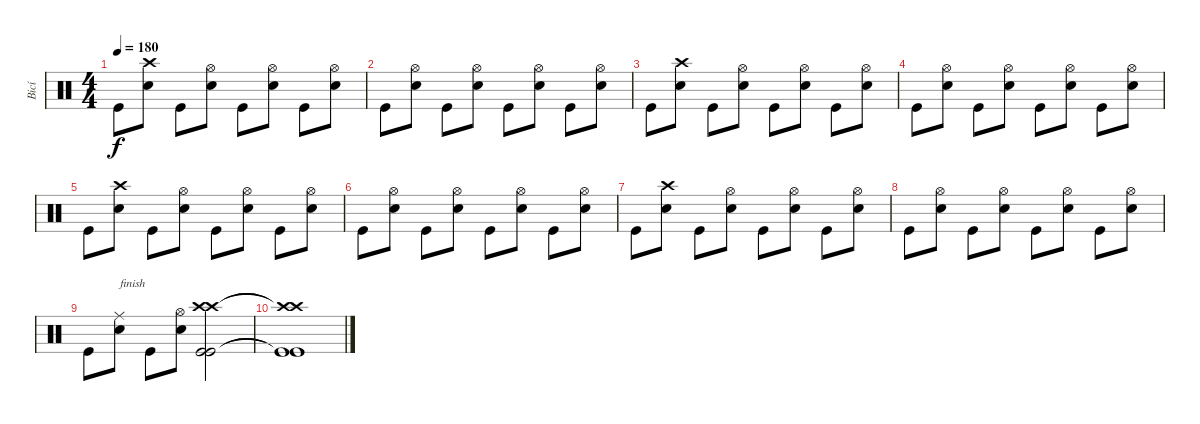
\track ("Bicí" "Bicí") {instrument percussion}
\staff {score}
\articulation defaults
\ts (4 4)
\tempo 180
\clef neutral
\ks c "Kick (hit)".8{dy f}
("Snare (hit) 2" "Crash high (hit)").8 "Kick (hit)".8 ("Snare (hit) 2" "Hi-Hat (open)").8 "Kick (hit)".8 ("Snare (hit) 2" "Hi-Hat (open)").8 "Kick (hit)".8 ("Snare (hit) 2" "Hi-Hat (open)").8 |
"Kick (hit)".8 ("Snare (hit) 2" "Hi-Hat (open)").8 "Kick (hit)".8 ("Snare (hit) 2" "Hi-Hat (open)").8 "Kick (hit)".8 ("Snare (hit) 2" "Hi-Hat (open)").8 "Kick (hit)".8 ("Snare (hit) 2" "Hi-Hat (open)").8 |
"Kick (hit)".8 ("Snare (hit) 2" "Crash high (hit)").8 "Kick (hit)".8 ("Snare (hit) 2" "Hi-Hat (open)").8 "Kick (hit)".8 ("Snare (hit) 2" "Hi-Hat (open)").8 "Kick (hit)".8 ("Snare (hit) 2" "Hi-Hat (open)").8 |
"Kick (hit)".8 ("Snare (hit) 2" "Hi-Hat (open)").8 "Kick (hit)".8 ("Snare (hit) 2" "Hi-Hat (open)").8 "Kick (hit)".8 ("Snare (hit) 2" "Hi-Hat (open)").8 "Kick (hit)".8 ("Snare (hit) 2" "Hi-Hat (open)").8 |
"Kick (hit)".8 ("Snare (hit) 2" "Crash high (hit)").8 "Kick (hit)".8 ("Snare (hit) 2" "Hi-Hat (open)").8 "Kick (hit)".8 ("Snare (hit) 2" "Hi-Hat (open)").8 "Kick (hit)".8 ("Snare (hit) 2" "Hi-Hat (open)").8 |
"Kick (hit)".8 ("Snare (hit) 2" "Hi-Hat (open)").8 "Kick (hit)".8 ("Snare (hit) 2" "Hi-Hat (open)").8 "Kick (hit)".8 ("Snare (hit) 2" "Hi-Hat (open)").8 "Kick (hit)".8 ("Snare (hit) 2" "Hi-Hat (open)").8 |
"Kick (hit)".8 ("Snare (hit) 2" "Crash high (hit)").8 "Kick (hit)".8 ("Snare (hit) 2" "Hi-Hat (open)").8 "Kick (hit)".8 ("Snare (hit) 2" "Hi-Hat (open)").8 "Kick (hit)".8 ("Snare (hit) 2" "Hi-Hat (open)").8 |
"Kick (hit)".8 ("Snare (hit) 2" "Hi-Hat (open)").8 "Kick (hit)".8 ("Snare (hit) 2" "Hi-Hat (open)").8 "Kick (hit)".8 ("Snare (hit) 2" "Hi-Hat (open)").8 "Kick (hit)".8 ("Snare (hit) 2" "Hi-Hat (open)").8 |
"Kick (hit)".8 ("Snare (hit) 2" "Ride (middle)").8{txt "finish"} "Kick (hit)".8 ("Snare (hit) 2" "Hi-Hat (open)").8 ("Kick (hit)" "Kick (hit)" "Crash high (hit)" "Crash high (hit)").2 |
("Kick (hit)"{t} "Kick (hit)"{t} "Crash high (hit)"{t} "Crash high (hit)"{t}).1
